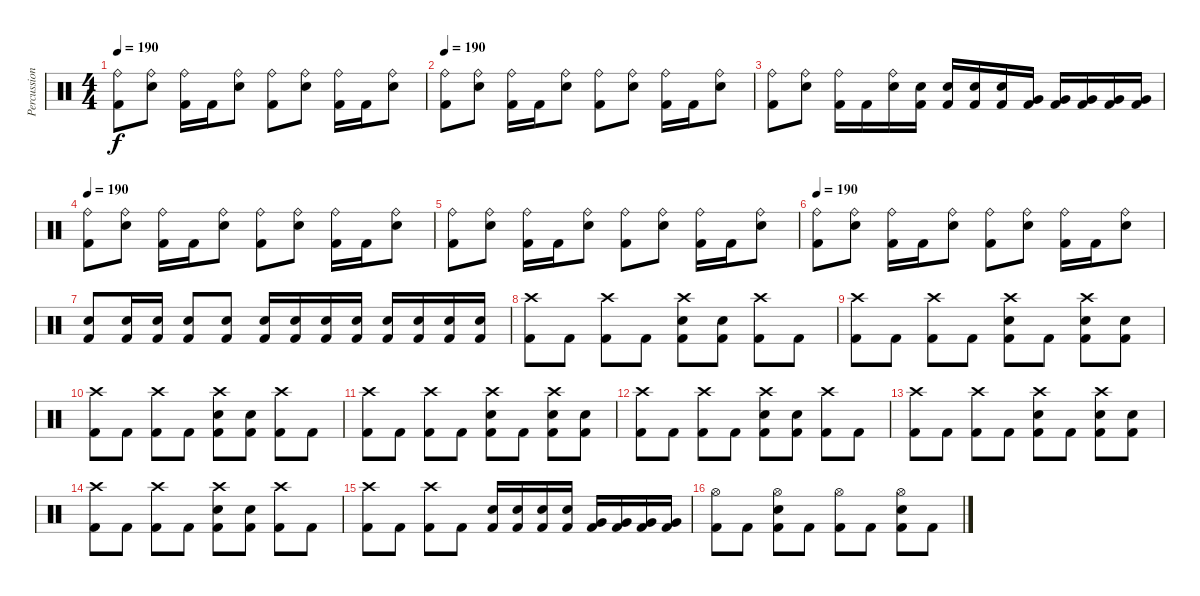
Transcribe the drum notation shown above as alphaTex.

\track ("Percussion" "Percussion") {instrument percussion}
\staff {score}
\articulation defaults
\ts (4 4)
\tempo 190
\clef neutral
\ks c
("Ride (bell)" "Kick (hit) 2").8{dy f} ("Ride (bell)" "Electric Snare (hit)").8 ("Ride (bell)" "Kick (hit) 2").16 "Kick (hit) 2".16 ("Ride (bell)" "Electric Snare (hit)").8 ("Ride (bell)" "Kick (hit) 2").8 ("Ride (bell)" "Electric Snare (hit)").8 ("Ride (bell)" "Kick (hit) 2").16 "Kick (hit) 2".16 ("Ride (bell)" "Electric Snare (hit)").8 |
\tempo 190
("Ride (bell)" "Kick (hit) 2").8 ("Ride (bell)" "Electric Snare (hit)").8 ("Ride (bell)" "Kick (hit) 2").16 "Kick (hit) 2".16 ("Ride (bell)" "Electric Snare (hit)").8 ("Ride (bell)" "Kick (hit) 2").8 ("Ride (bell)" "Electric Snare (hit)").8 ("Ride (bell)" "Kick (hit) 2").16 "Kick (hit) 2".16 ("Ride (bell)" "Electric Snare (hit)").8 |
("Ride (bell)" "Kick (hit) 2").8 ("Ride (bell)" "Electric Snare (hit)").8 ("Ride (bell)" "Kick (hit) 2").16 "Kick (hit) 2".16 ("Ride (bell)" "Electric Snare (hit)").16 ("Electric Snare (hit)" "Kick (hit) 2").16 ("Electric Snare (hit)" "Kick (hit) 2").16 ("Electric Snare (hit)" "Kick (hit) 2").16 ("Electric Snare (hit)" "Kick (hit) 2").16 ("Very Low Tom (hit)" "Kick (hit) 2").16 ("Very Low Tom (hit)" "Kick (hit) 2").16 ("Very Low Tom (hit)" "Kick (hit) 2").16 ("Very Low Tom (hit)" "Kick (hit) 2").16 ("Very Low Tom (hit)" "Kick (hit) 2").16 |
\tempo 190
("Ride (bell)" "Kick (hit) 2").8 ("Ride (bell)" "Electric Snare (hit)").8 ("Ride (bell)" "Kick (hit) 2").16 "Kick (hit) 2".16 ("Ride (bell)" "Electric Snare (hit)").8 ("Ride (bell)" "Kick (hit) 2").8 ("Ride (bell)" "Electric Snare (hit)").8 ("Ride (bell)" "Kick (hit) 2").16 "Kick (hit) 2".16 ("Ride (bell)" "Electric Snare (hit)").8 |
("Ride (bell)" "Kick (hit) 2").8 ("Ride (bell)" "Electric Snare (hit)").8 ("Ride (bell)" "Kick (hit) 2").16 "Kick (hit) 2".16 ("Ride (bell)" "Electric Snare (hit)").8 ("Ride (bell)" "Kick (hit) 2").8 ("Ride (bell)" "Electric Snare (hit)").8 ("Ride (bell)" "Kick (hit) 2").16 "Kick (hit) 2".16 ("Ride (bell)" "Electric Snare (hit)").8 |
\tempo 190
("Ride (bell)" "Kick (hit) 2").8 ("Ride (bell)" "Electric Snare (hit)").8 ("Ride (bell)" "Kick (hit) 2").16 "Kick (hit) 2".16 ("Ride (bell)" "Electric Snare (hit)").8 ("Ride (bell)" "Kick (hit) 2").8 ("Ride (bell)" "Electric Snare (hit)").8 ("Ride (bell)" "Kick (hit) 2").16 "Kick (hit) 2".16 ("Ride (bell)" "Electric Snare (hit)").8 |
("Electric Snare (hit)" "Kick (hit) 2").8 ("Electric Snare (hit)" "Kick (hit) 2").16 ("Electric Snare (hit)" "Kick (hit) 2").16 ("Electric Snare (hit)" "Kick (hit) 2").8 ("Electric Snare (hit)" "Kick (hit) 2").8 ("Electric Snare (hit)" "Kick (hit) 2").16 ("Electric Snare (hit)" "Kick (hit) 2").16 ("Electric Snare (hit)" "Kick (hit) 2").16 ("Electric Snare (hit)" "Kick (hit) 2").16 ("Electric Snare (hit)" "Kick (hit) 2").16 ("Electric Snare (hit)" "Kick (hit) 2").16 ("Electric Snare (hit)" "Kick (hit) 2").16 ("Electric Snare (hit)" "Kick (hit) 2").16 |
("Crash high (hit)" "Kick (hit) 2").8 "Kick (hit) 2".8 ("Crash high (hit)" "Kick (hit) 2").8 "Kick (hit) 2".8 ("Crash high (hit)" "Electric Snare (hit)" "Kick (hit) 2").8 ("Electric Snare (hit)" "Kick (hit) 2").8 ("Crash high (hit)" "Kick (hit) 2").8 "Kick (hit) 2".8 |
("Crash high (hit)" "Kick (hit) 2").8 "Kick (hit) 2".8 ("Crash high (hit)" "Kick (hit) 2").8 "Kick (hit) 2".8 ("Crash high (hit)" "Electric Snare (hit)" "Kick (hit) 2").8 "Kick (hit) 2".8 ("Crash high (hit)" "Electric Snare (hit)" "Kick (hit) 2").8 ("Electric Snare (hit)" "Kick (hit) 2").8 |
("Crash high (hit)" "Kick (hit) 2").8 "Kick (hit) 2".8 ("Crash high (hit)" "Kick (hit) 2").8 "Kick (hit) 2".8 ("Crash high (hit)" "Electric Snare (hit)" "Kick (hit) 2").8 ("Electric Snare (hit)" "Kick (hit) 2").8 ("Crash high (hit)" "Kick (hit) 2").8 "Kick (hit) 2".8 |
("Crash high (hit)" "Kick (hit) 2").8 "Kick (hit) 2".8 ("Crash high (hit)" "Kick (hit) 2").8 "Kick (hit) 2".8 ("Crash high (hit)" "Electric Snare (hit)" "Kick (hit) 2").8 "Kick (hit) 2".8 ("Crash high (hit)" "Electric Snare (hit)" "Kick (hit) 2").8 ("Electric Snare (hit)" "Kick (hit) 2").8 |
("Crash high (hit)" "Kick (hit) 2").8 "Kick (hit) 2".8 ("Crash high (hit)" "Kick (hit) 2").8 "Kick (hit) 2".8 ("Crash high (hit)" "Electric Snare (hit)" "Kick (hit) 2").8 ("Electric Snare (hit)" "Kick (hit) 2").8 ("Crash high (hit)" "Kick (hit) 2").8 "Kick (hit) 2".8 |
("Crash high (hit)" "Kick (hit) 2").8 "Kick (hit) 2".8 ("Crash high (hit)" "Kick (hit) 2").8 "Kick (hit) 2".8 ("Crash high (hit)" "Electric Snare (hit)" "Kick (hit) 2").8 "Kick (hit) 2".8 ("Crash high (hit)" "Electric Snare (hit)" "Kick (hit) 2").8 ("Electric Snare (hit)" "Kick (hit) 2").8 |
("Crash high (hit)" "Kick (hit) 2").8 "Kick (hit) 2".8 ("Crash high (hit)" "Kick (hit) 2").8 "Kick (hit) 2".8 ("Crash high (hit)" "Electric Snare (hit)" "Kick (hit) 2").8 ("Electric Snare (hit)" "Kick (hit) 2").8 ("Crash high (hit)" "Kick (hit) 2").8 "Kick (hit) 2".8 |
("Crash high (hit)" "Kick (hit) 2").8 "Kick (hit) 2".8 ("Crash high (hit)" "Kick (hit) 2").8 "Kick (hit) 2".8 ("Electric Snare (hit)" "Kick (hit) 2").16 ("Electric Snare (hit)" "Kick (hit) 2").16 ("Electric Snare (hit)" "Kick (hit) 2").16 ("Electric Snare (hit)" "Kick (hit) 2").16 ("Very Low Tom (hit)" "Kick (hit) 2").16 ("Very Low Tom (hit)" "Kick (hit) 2").16 ("Very Low Tom (hit)" "Kick (hit) 2").16 ("Very Low Tom (hit)" "Kick (hit) 2").16 |
("Hi-Hat (open)" "Kick (hit) 2").8 "Kick (hit) 2".8 ("Hi-Hat (open)" "Electric Snare (hit)" "Kick (hit) 2").8 "Kick (hit) 2".8 ("Hi-Hat (open)" "Kick (hit) 2").8 "Kick (hit) 2".8 ("Hi-Hat (open)" "Electric Snare (hit)" "Kick (hit) 2").8 "Kick (hit) 2".8
